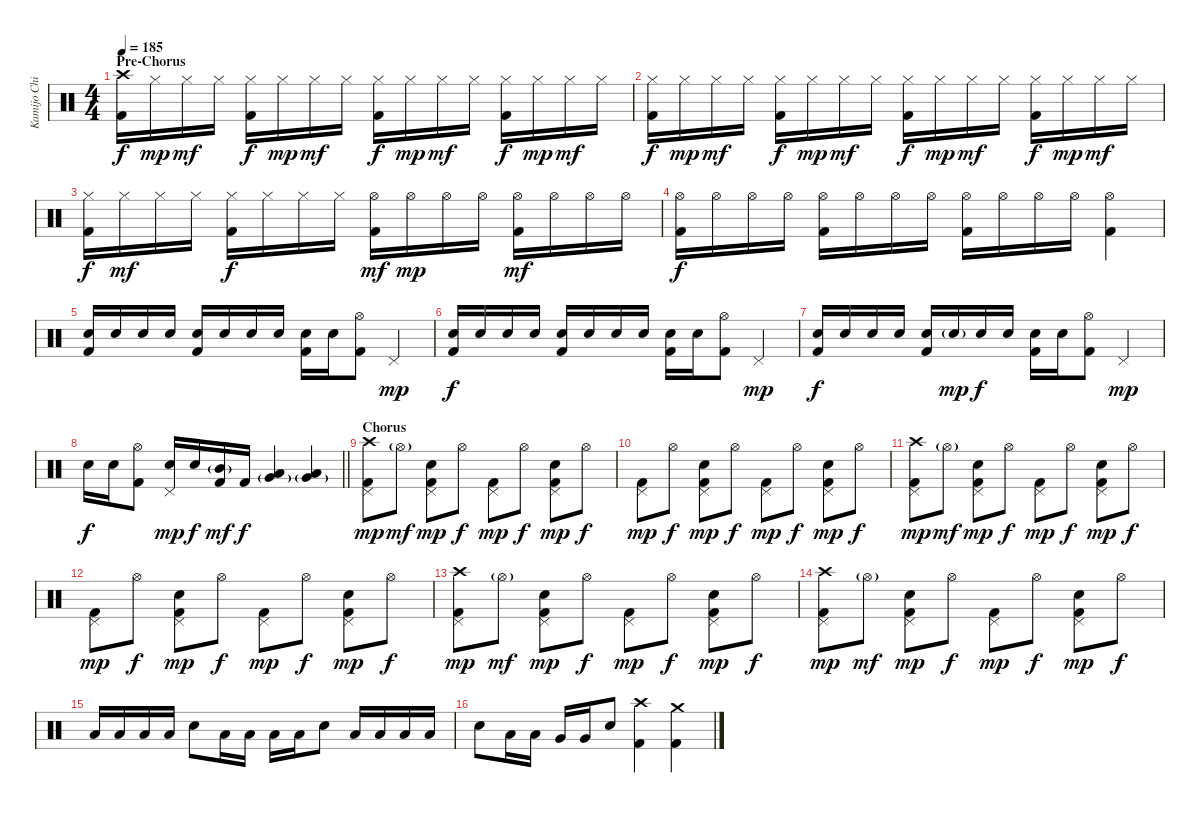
\track ("Kamijo Chihiro" "Kamijo Chi") {instrument percussion}
\staff {score}
\articulation defaults
\ts (4 4)
\section ("" "Pre-Chorus")
\tempo 185
\clef neutral
\ks c
("Crash high (hit)" "Kick (hit) 2").16{dy f} "Hi-Hat (closed)".16{dy mp} "Hi-Hat (closed)".16{dy mf} "Hi-Hat (closed)".16 ("Hi-Hat (closed)" "Kick (hit) 2").16{dy f} "Hi-Hat (closed)".16{dy mp} "Hi-Hat (closed)".16{dy mf} "Hi-Hat (closed)".16 ("Hi-Hat (closed)" "Kick (hit) 2").16{dy f} "Hi-Hat (closed)".16{dy mp} "Hi-Hat (closed)".16{dy mf} "Hi-Hat (closed)".16 ("Hi-Hat (closed)" "Kick (hit) 2").16{dy f} "Hi-Hat (closed)".16{dy mp} "Hi-Hat (closed)".16{dy mf} "Hi-Hat (closed)".16 |
("Hi-Hat (closed)" "Kick (hit) 2").16{dy f} "Hi-Hat (closed)".16{dy mp} "Hi-Hat (closed)".16{dy mf} "Hi-Hat (closed)".16 ("Hi-Hat (closed)" "Kick (hit) 2").16{dy f} "Hi-Hat (closed)".16{dy mp} "Hi-Hat (closed)".16{dy mf} "Hi-Hat (closed)".16 ("Hi-Hat (closed)" "Kick (hit) 2").16{dy f} "Hi-Hat (closed)".16{dy mp} "Hi-Hat (closed)".16{dy mf} "Hi-Hat (closed)".16 ("Hi-Hat (closed)" "Kick (hit) 2").16{dy f} "Hi-Hat (closed)".16{dy mp} "Hi-Hat (closed)".16{dy mf} "Hi-Hat (closed)".16 |
("Hi-Hat (closed)" "Kick (hit) 2").16{dy f} "Hi-Hat (closed)".16{dy mf} "Hi-Hat (closed)".16 "Hi-Hat (closed)".16 ("Hi-Hat (closed)" "Kick (hit) 2").16{dy f} "Hi-Hat (closed)".16 "Hi-Hat (closed)".16 "Hi-Hat (closed)".16 ("Hi-Hat (open)" "Kick (hit) 2").16{dy mf} "Hi-Hat (open)".16{dy mp} "Hi-Hat (open)".16 "Hi-Hat (open)".16 ("Hi-Hat (open)" "Kick (hit) 2").16{dy mf} "Hi-Hat (open)".16 "Hi-Hat (open)".16 "Hi-Hat (open)".16 |
("Hi-Hat (open)" "Kick (hit) 2").16{dy f} "Hi-Hat (open)".16 "Hi-Hat (open)".16 "Hi-Hat (open)".16 ("Hi-Hat (open)" "Kick (hit) 2").16 "Hi-Hat (open)".16 "Hi-Hat (open)".16 "Hi-Hat (open)".16 ("Hi-Hat (open)" "Kick (hit) 2").16 "Hi-Hat (open)".16 "Hi-Hat (open)".16 "Hi-Hat (open)".16 ("Hi-Hat (open)" "Kick (hit) 2").4 |
("Snare (hit) 2" "Kick (hit) 2").16 "Snare (hit) 2".16 "Snare (hit) 2".16 "Snare (hit) 2".16 ("Snare (hit) 2" "Kick (hit) 2").16 "Snare (hit) 2".16 "Snare (hit) 2".16 "Snare (hit) 2".16 ("Snare (hit) 2" "Kick (hit) 2").16 "Snare (hit) 2".16 ("Hi-Hat (open)" "Kick (hit) 2").8 "Pedal Hi-Hat (hit)".4{dy mp} |
("Snare (hit) 2" "Kick (hit) 2").16{dy f} "Snare (hit) 2".16 "Snare (hit) 2".16 "Snare (hit) 2".16 ("Snare (hit) 2" "Kick (hit) 2").16 "Snare (hit) 2".16 "Snare (hit) 2".16 "Snare (hit) 2".16 ("Snare (hit) 2" "Kick (hit) 2").16 "Snare (hit) 2".16 ("Hi-Hat (open)" "Kick (hit) 2").8 "Pedal Hi-Hat (hit)".4{dy mp} |
("Snare (hit) 2" "Kick (hit) 2").16{dy f} "Snare (hit) 2".16 "Snare (hit) 2".16 "Snare (hit) 2".16 ("Snare (hit) 2" "Kick (hit) 2").16 "Snare (hit) 2"{g}.16{dy mp} "Snare (hit) 2".16{dy f} "Snare (hit) 2".16 ("Snare (hit) 2" "Kick (hit) 2").16 "Snare (hit) 2".16 ("Hi-Hat (open)" "Kick (hit) 2").8 "Pedal Hi-Hat (hit)".4{dy mp} |
\barLineRight lightlight "Snare (hit) 2".16{dy f} "Snare (hit) 2".16
("Hi-Hat (open)" "Kick (hit) 2").8 ("Pedal Hi-Hat (hit)" "Snare (hit) 2").16{dy mp} "Snare (hit) 2".16{dy f} ("Mid Tom (hit)"{g} "Kick (hit) 2").16{dy mf} "Kick (hit) 2".16{dy f} ("Low Tom (hit)" "Very Low Tom (hit)"{g}).4 ("Low Tom (hit)" "Very Low Tom (hit)"{g}).4 |
\section ("" "Chorus")
("Crash high (hit)" "Pedal Hi-Hat (hit)" "Kick (hit) 2").8{dy mp} "Hi-Hat (open)"{g}.8{dy mf} ("Pedal Hi-Hat (hit)" "Snare (hit) 2" "Kick (hit) 2").8{dy mp} "Hi-Hat (open)".8{dy f} ("Pedal Hi-Hat (hit)" "Kick (hit) 2").8{dy mp} "Hi-Hat (open)".8{dy f} ("Pedal Hi-Hat (hit)" "Snare (hit) 2" "Kick (hit) 2").8{dy mp} "Hi-Hat (open)".8{dy f} |
("Pedal Hi-Hat (hit)" "Kick (hit) 2").8{dy mp} "Hi-Hat (open)".8{dy f} ("Pedal Hi-Hat (hit)" "Snare (hit) 2" "Kick (hit) 2").8{dy mp} "Hi-Hat (open)".8{dy f} ("Pedal Hi-Hat (hit)" "Kick (hit) 2").8{dy mp} "Hi-Hat (open)".8{dy f} ("Pedal Hi-Hat (hit)" "Snare (hit) 2" "Kick (hit) 2").8{dy mp} "Hi-Hat (open)".8{dy f} |
("Crash high (hit)" "Pedal Hi-Hat (hit)" "Kick (hit) 2").8{dy mp} "Hi-Hat (open)"{g}.8{dy mf} ("Pedal Hi-Hat (hit)" "Snare (hit) 2" "Kick (hit) 2").8{dy mp} "Hi-Hat (open)".8{dy f} ("Pedal Hi-Hat (hit)" "Kick (hit) 2").8{dy mp} "Hi-Hat (open)".8{dy f} ("Pedal Hi-Hat (hit)" "Snare (hit) 2" "Kick (hit) 2").8{dy mp} "Hi-Hat (open)".8{dy f} |
("Pedal Hi-Hat (hit)" "Kick (hit) 2").8{dy mp} "Hi-Hat (open)".8{dy f} ("Pedal Hi-Hat (hit)" "Snare (hit) 2" "Kick (hit) 2").8{dy mp} "Hi-Hat (open)".8{dy f} ("Pedal Hi-Hat (hit)" "Kick (hit) 2").8{dy mp} "Hi-Hat (open)".8{dy f} ("Pedal Hi-Hat (hit)" "Snare (hit) 2" "Kick (hit) 2").8{dy mp} "Hi-Hat (open)".8{dy f} |
("Crash high (hit)" "Pedal Hi-Hat (hit)" "Kick (hit) 2").8{dy mp} "Hi-Hat (open)"{g}.8{dy mf} ("Pedal Hi-Hat (hit)" "Snare (hit) 2" "Kick (hit) 2").8{dy mp} "Hi-Hat (open)".8{dy f} ("Pedal Hi-Hat (hit)" "Kick (hit) 2").8{dy mp} "Hi-Hat (open)".8{dy f} ("Pedal Hi-Hat (hit)" "Snare (hit) 2" "Kick (hit) 2").8{dy mp} "Hi-Hat (open)".8{dy f} |
("Crash high (hit)" "Pedal Hi-Hat (hit)" "Kick (hit) 2").8{dy mp} "Hi-Hat (open)"{g}.8{dy mf} ("Pedal Hi-Hat (hit)" "Snare (hit) 2" "Kick (hit) 2").8{dy mp} "Hi-Hat (open)".8{dy f} ("Pedal Hi-Hat (hit)" "Kick (hit) 2").8{dy mp} "Hi-Hat (open)".8{dy f} ("Pedal Hi-Hat (hit)" "Snare (hit) 2" "Kick (hit) 2").8{dy mp} "Hi-Hat (open)".8{dy f} |
"Low Tom (hit)".16 "Low Tom (hit)".16 "Low Tom (hit)".16 "Low Tom (hit)".16 "Snare (hit) 2".8 "Low Tom (hit)".16 "Low Tom (hit)".16 "Low Tom (hit)".16 "Low Tom (hit)".16 "Snare (hit) 2".8 "Low Tom (hit)".16 "Low Tom (hit)".16 "Low Tom (hit)".16 "Low Tom (hit)".16 |
"Snare (hit) 2".8 "Low Tom (hit)".16 "Low Tom (hit)".16 "Very Low Tom (hit)".16 "Very Low Tom (hit)".16 "Snare (hit) 2".8 ("Crash high (hit)" "Kick (hit) 2").4 ("Crash medium (hit)" "Kick (hit) 2").4
